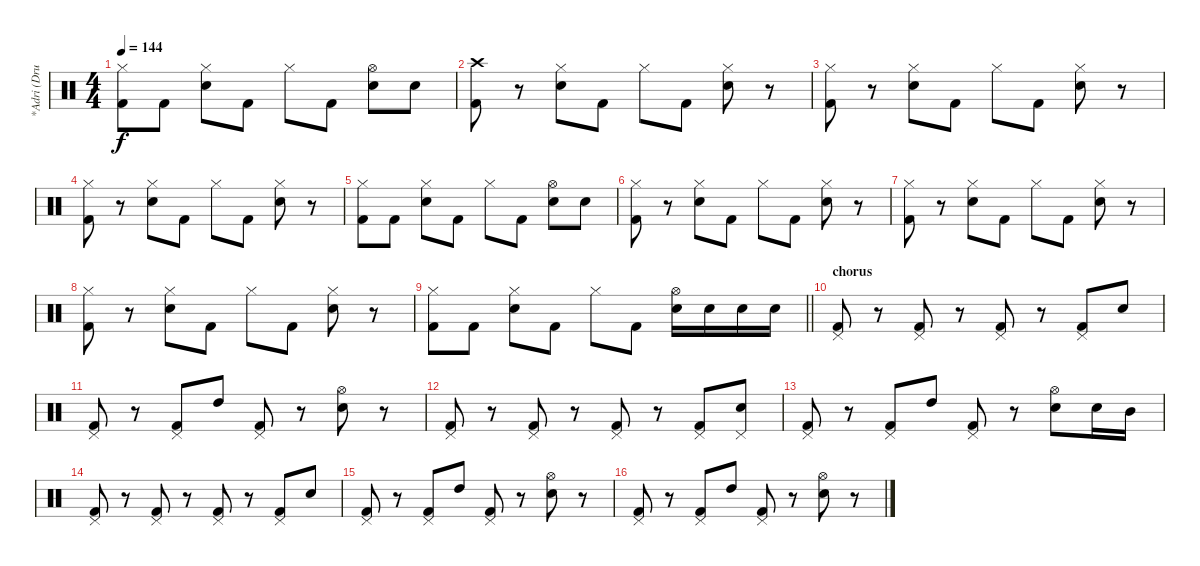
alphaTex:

\track ("*Adri (Drum)" "*Adri (Dru") {instrument percussion}
\staff {score}
\articulation defaults
\ts (4 4)
\tempo 144
\clef neutral
\ks c
("Hi-Hat (closed)" "Kick (hit) 2").8{dy f} "Kick (hit) 2".8 ("Hi-Hat (closed)" "Electric Snare (hit)").8 "Kick (hit) 2".8 "Hi-Hat (closed)".8 "Kick (hit) 2".8 ("Hi-Hat (open)" "Electric Snare (hit)").8 "Electric Snare (hit)".8 |
("Crash high (hit)" "Kick (hit) 2").8 r.8 ("Hi-Hat (closed)" "Electric Snare (hit)").8 "Kick (hit) 2".8 "Hi-Hat (closed)".8 "Kick (hit) 2".8 ("Hi-Hat (closed)" "Electric Snare (hit)").8 r.8 |
("Hi-Hat (closed)" "Kick (hit) 2").8 r.8 ("Hi-Hat (closed)" "Electric Snare (hit)").8 "Kick (hit) 2".8 "Hi-Hat (closed)".8 "Kick (hit) 2".8 ("Hi-Hat (closed)" "Electric Snare (hit)").8 r.8 |
("Hi-Hat (closed)" "Kick (hit) 2").8 r.8 ("Hi-Hat (closed)" "Electric Snare (hit)").8 "Kick (hit) 2".8 "Hi-Hat (closed)".8 "Kick (hit) 2".8 ("Hi-Hat (closed)" "Electric Snare (hit)").8 r.8 |
("Hi-Hat (closed)" "Kick (hit) 2").8 "Kick (hit) 2".8 ("Hi-Hat (closed)" "Electric Snare (hit)").8 "Kick (hit) 2".8 "Hi-Hat (closed)".8 "Kick (hit) 2".8 ("Hi-Hat (open)" "Electric Snare (hit)").8 "Electric Snare (hit)".8 |
("Hi-Hat (closed)" "Kick (hit) 2").8 r.8 ("Hi-Hat (closed)" "Electric Snare (hit)").8 "Kick (hit) 2".8 "Hi-Hat (closed)".8 "Kick (hit) 2".8 ("Hi-Hat (closed)" "Electric Snare (hit)").8 r.8 |
("Hi-Hat (closed)" "Kick (hit) 2").8 r.8 ("Hi-Hat (closed)" "Electric Snare (hit)").8 "Kick (hit) 2".8 "Hi-Hat (closed)".8 "Kick (hit) 2".8 ("Hi-Hat (closed)" "Electric Snare (hit)").8 r.8 |
("Hi-Hat (closed)" "Kick (hit) 2").8 r.8 ("Hi-Hat (closed)" "Electric Snare (hit)").8 "Kick (hit) 2".8 "Hi-Hat (closed)".8 "Kick (hit) 2".8 ("Hi-Hat (closed)" "Electric Snare (hit)").8 r.8 |
\barLineRight lightlight
("Hi-Hat (closed)" "Kick (hit) 2").8 "Kick (hit) 2".8 ("Hi-Hat (closed)" "Electric Snare (hit)").8 "Kick (hit) 2".8 "Hi-Hat (closed)".8 "Kick (hit) 2".8 ("Hi-Hat (open)" "Electric Snare (hit)").16 "Electric Snare (hit)".16 "Electric Snare (hit)".16 "Electric Snare (hit)".16 |
\section ("" "chorus")
("Pedal Hi-Hat (hit)" "Kick (hit) 2").8 r.8 ("Pedal Hi-Hat (hit)" "Kick (hit) 2").8 r.8 ("Pedal Hi-Hat (hit)" "Kick (hit) 2").8 r.8 ("Pedal Hi-Hat (hit)" "Kick (hit) 2").8 "Electric Snare (hit)".8 |
("Pedal Hi-Hat (hit)" "Kick (hit) 2").8 r.8 ("Pedal Hi-Hat (hit)" "Kick (hit) 2").8 "High Tom (hit)".8 ("Pedal Hi-Hat (hit)" "Kick (hit) 2").8 r.8 ("Hi-Hat (open)" "Electric Snare (hit)").8 r.8 |
("Pedal Hi-Hat (hit)" "Kick (hit) 2").8 r.8 ("Pedal Hi-Hat (hit)" "Kick (hit) 2").8 r.8 ("Pedal Hi-Hat (hit)" "Kick (hit) 2").8 r.8 ("Pedal Hi-Hat (hit)" "Kick (hit) 2").8 ("Pedal Hi-Hat (hit)" "Electric Snare (hit)").8 |
("Pedal Hi-Hat (hit)" "Kick (hit) 2").8 r.8 ("Pedal Hi-Hat (hit)" "Kick (hit) 2").8 "High Tom (hit)".8 ("Pedal Hi-Hat (hit)" "Kick (hit) 2").8 r.8 ("Hi-Hat (open)" "Electric Snare (hit)").8 "Electric Snare (hit)".16 "Mid Tom (hit)".16 |
("Pedal Hi-Hat (hit)" "Kick (hit) 2").8 r.8 ("Pedal Hi-Hat (hit)" "Kick (hit) 2").8 r.8 ("Pedal Hi-Hat (hit)" "Kick (hit) 2").8 r.8 ("Pedal Hi-Hat (hit)" "Kick (hit) 2").8 "Electric Snare (hit)".8 |
("Pedal Hi-Hat (hit)" "Kick (hit) 2").8 r.8 ("Pedal Hi-Hat (hit)" "Kick (hit) 2").8 "High Tom (hit)".8 ("Pedal Hi-Hat (hit)" "Kick (hit) 2").8 r.8 ("Hi-Hat (open)" "Electric Snare (hit)").8 r.8 |
("Pedal Hi-Hat (hit)" "Kick (hit) 2").8 r.8 ("Pedal Hi-Hat (hit)" "Kick (hit) 2").8 "High Tom (hit)".8 ("Pedal Hi-Hat (hit)" "Kick (hit) 2").8 r.8 ("Hi-Hat (open)" "Electric Snare (hit)").8 r.8
